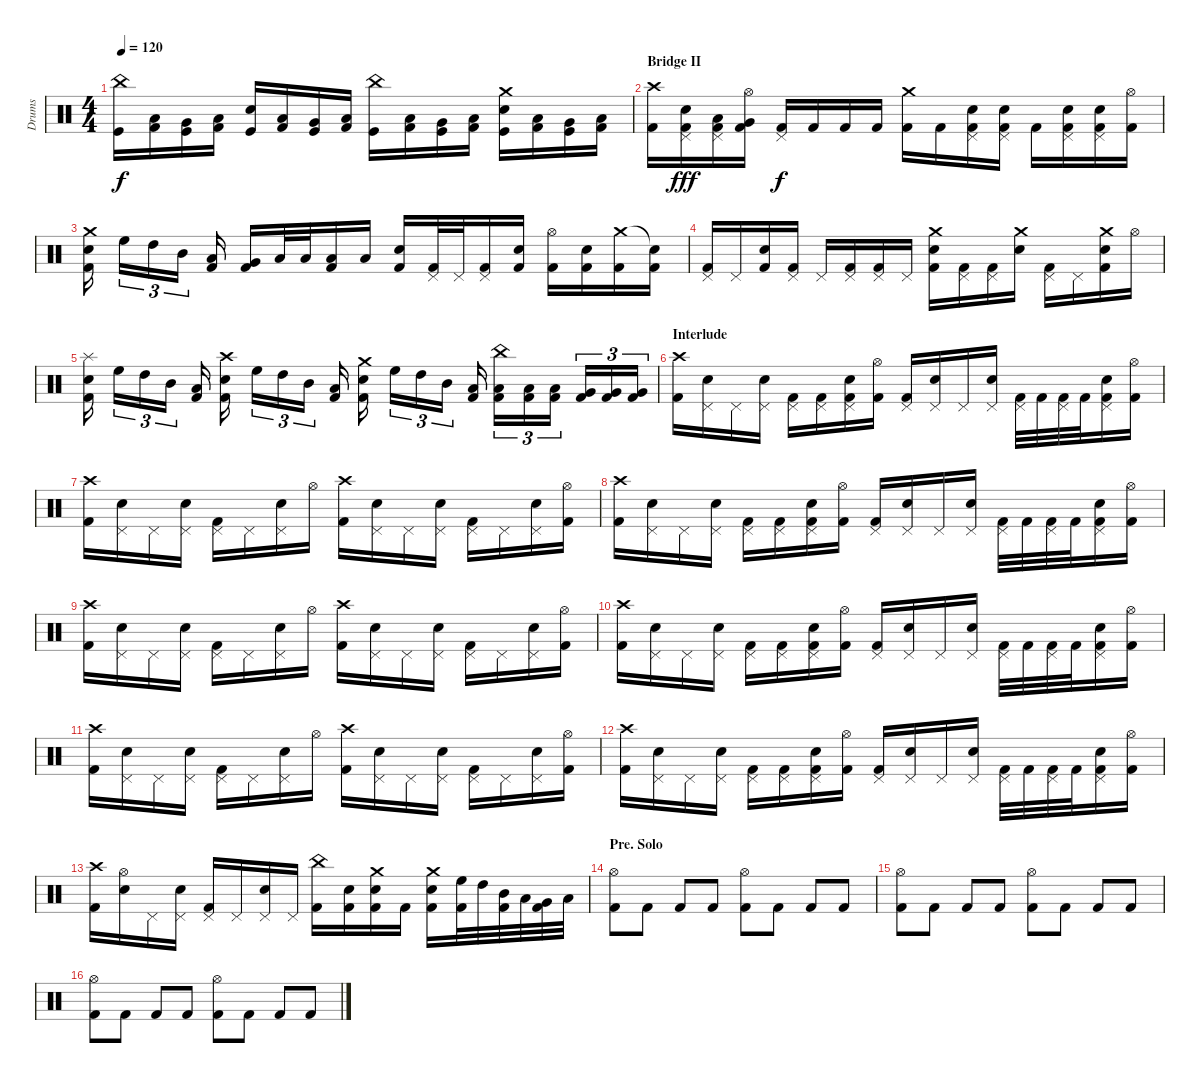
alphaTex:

\track ("Drums" "Drums") {instrument percussion}
\staff {score}
\articulation defaults
\ts (4 4)
\tempo 120
\clef neutral
\ks c
("China (hit)" "Kick (hit)").16{dy f} ("Low Tom (hit)" "Kick (hit) 2").16 ("Very Low Tom (hit)" "Kick (hit)").16 ("Low Floor Tom (hit)" "Kick (hit) 2").16 ("Snare (hit) 2" "Kick (hit)").16 ("Low Tom (hit)" "Kick (hit) 2").16 ("Very Low Tom (hit)" "Kick (hit)").16 ("Low Floor Tom (hit)" "Kick (hit) 2").16 ("China (hit)" "Kick (hit)").16 ("Low Tom (hit)" "Kick (hit) 2").16 ("Very Low Tom (hit)" "Kick (hit)").16 ("Low Floor Tom (hit)" "Kick (hit) 2").16 ("Crash medium (hit)" "Snare (hit) 2" "Kick (hit)").16 ("Low Tom (hit)" "Kick (hit) 2").16 ("Very Low Tom (hit)" "Kick (hit)").16 ("Low Floor Tom (hit)" "Kick (hit) 2").16 |
\section ("" "Bridge II")
("Crash high (hit)" "Kick (hit) 2").16 ("Pedal Hi-Hat (hit)" "Snare (hit) 2" "Kick (hit) 2").16{dy fff} ("Pedal Hi-Hat (hit)" "Low Tom (hit)" "Kick (hit) 2").16 ("Hi-Hat (open)" "Very Low Tom (hit)" "Kick (hit) 2").16 ("Pedal Hi-Hat (hit)" "Kick (hit) 2").16{dy f} "Kick (hit) 2".16 "Kick (hit) 2".16 "Kick (hit) 2".16 ("Crash medium (hit)" "Kick (hit) 2").16 "Kick (hit) 2".16 ("Pedal Hi-Hat (hit)" "Snare (hit) 2" "Kick (hit) 2").16 ("Pedal Hi-Hat (hit)" "Snare (hit) 2" "Kick (hit) 2").16 "Kick (hit) 2".16 ("Pedal Hi-Hat (hit)" "Snare (hit) 2" "Kick (hit) 2").16 ("Pedal Hi-Hat (hit)" "Snare (hit) 2" "Kick (hit) 2").16 ("Hi-Hat (open)" "Kick (hit) 2").16 |
("Crash medium (hit)" "Snare (hit) 2" "Kick (hit) 2").16 "High Floor Tom (hit)".16{tu (3 2)} "High Tom (hit)".16{tu (3 2)} "Mid Tom (hit)".16{tu (3 2)} ("Low Tom (hit)" "Kick (hit) 2").16 ("Very Low Tom (hit)" "Kick (hit) 2").16 "Low Floor Tom (hit)".32 "Low Floor Tom (hit)".32 ("Low Floor Tom (hit)" "Kick (hit) 2").16 "Low Floor Tom (hit)".16 ("Snare (hit) 2" "Kick (hit) 2").16 ("Pedal Hi-Hat (hit)" "Kick (hit) 2").32 "Pedal Hi-Hat (hit)".32 ("Pedal Hi-Hat (hit)" "Kick (hit) 2").16 ("Snare (hit) 2" "Kick (hit) 2").16 ("Hi-Hat (open)" "Kick (hit) 2").16 ("Snare (hit) 2" "Kick (hit) 2").16 ("Crash medium (hit)" "Kick (hit) 2").16 ("Snare (hit)"{t} "Kick (hit) 2").16 |
("Pedal Hi-Hat (hit)" "Kick (hit) 2").16 "Pedal Hi-Hat (hit)".16 ("Snare (hit) 2" "Kick (hit) 2").16 ("Pedal Hi-Hat (hit)" "Kick (hit) 2").16 "Pedal Hi-Hat (hit)".16 ("Pedal Hi-Hat (hit)" "Kick (hit) 2").16 ("Pedal Hi-Hat (hit)" "Kick (hit) 2").16 "Pedal Hi-Hat (hit)".16 ("Crash medium (hit)" "Snare (hit) 2" "Kick (hit) 2").16 ("Pedal Hi-Hat (hit)" "Kick (hit) 2").16 ("Pedal Hi-Hat (hit)" "Kick (hit) 2").16 ("Crash medium (hit)" "Snare (hit) 2").16 ("Pedal Hi-Hat (hit)" "Kick (hit) 2").16 "Pedal Hi-Hat (hit)".16 ("Crash medium (hit)" "Snare (hit) 2" "Kick (hit) 2").16 "Hi-Hat (open)".16 |
("Splash (hit)" "Snare (hit) 2" "Kick (hit) 2").16 "High Floor Tom (hit)".16{tu (3 2)} "High Tom (hit)".16{tu (3 2)} "Mid Tom (hit)".16{tu (3 2)} ("Low Tom (hit)" "Kick (hit) 2").16 ("Crash high (hit)" "Snare (hit) 2" "Kick (hit) 2").16 "High Floor Tom (hit)".16{tu (3 2)} "High Tom (hit)".16{tu (3 2)} "Mid Tom (hit)".16{tu (3 2)} ("Low Tom (hit)" "Kick (hit) 2").16 ("Crash medium (hit)" "Snare (hit) 2" "Kick (hit) 2").16 "High Floor Tom (hit)".16{tu (3 2)} "High Tom (hit)".16{tu (3 2)} "Mid Tom (hit)".16{tu (3 2)} ("Low Tom (hit)" "Kick (hit) 2").16 ("China (hit)" "Low Tom (hit)" "Kick (hit) 2").16{tu (3 2)} ("Low Tom (hit)" "Kick (hit) 2").16{tu (3 2)} ("Low Tom (hit)" "Kick (hit) 2").16{tu (3 2)} ("Very Low Tom (hit)" "Kick (hit) 2").16{tu (3 2)} ("Very Low Tom (hit)" "Kick (hit) 2").16{tu (3 2)} ("Very Low Tom (hit)" "Kick (hit) 2").16{tu (3 2)} |
\section ("" "Interlude")
("Crash high (hit)" "Kick (hit) 2").16 ("Pedal Hi-Hat (hit)" "Snare (hit) 2").16 "Pedal Hi-Hat (hit)".16 ("Pedal Hi-Hat (hit)" "Snare (hit) 2").16 ("Pedal Hi-Hat (hit)" "Kick (hit) 2").16 ("Pedal Hi-Hat (hit)" "Kick (hit) 2").16 ("Pedal Hi-Hat (hit)" "Snare (hit) 2" "Kick (hit) 2").16 ("Hi-Hat (open)" "Kick (hit) 2").16 ("Pedal Hi-Hat (hit)" "Kick (hit) 2").16 ("Pedal Hi-Hat (hit)" "Snare (hit) 2").16 "Pedal Hi-Hat (hit)".16 ("Pedal Hi-Hat (hit)" "Snare (hit) 2").16 ("Pedal Hi-Hat (hit)" "Kick (hit) 2").32 "Kick (hit) 2".32 ("Pedal Hi-Hat (hit)" "Kick (hit) 2").32 "Kick (hit) 2".32 ("Pedal Hi-Hat (hit)" "Snare (hit) 2" "Kick (hit) 2").16 ("Hi-Hat (open)" "Kick (hit) 2").16 |
("Crash high (hit)" "Kick (hit) 2").16 ("Pedal Hi-Hat (hit)" "Snare (hit) 2").16 "Pedal Hi-Hat (hit)".16 ("Pedal Hi-Hat (hit)" "Snare (hit) 2").16 ("Pedal Hi-Hat (hit)" "Kick (hit) 2").16 "Pedal Hi-Hat (hit)".16 ("Pedal Hi-Hat (hit)" "Snare (hit) 2").16 "Hi-Hat (open)".16 ("Crash high (hit)" "Kick (hit) 2").16 ("Pedal Hi-Hat (hit)" "Snare (hit) 2").16 "Pedal Hi-Hat (hit)".16 ("Pedal Hi-Hat (hit)" "Snare (hit) 2").16 ("Pedal Hi-Hat (hit)" "Kick (hit) 2").16 "Pedal Hi-Hat (hit)".16 ("Pedal Hi-Hat (hit)" "Snare (hit) 2").16 ("Hi-Hat (open)" "Kick (hit) 2").16 |
("Crash high (hit)" "Kick (hit) 2").16 ("Pedal Hi-Hat (hit)" "Snare (hit) 2").16 "Pedal Hi-Hat (hit)".16 ("Pedal Hi-Hat (hit)" "Snare (hit) 2").16 ("Pedal Hi-Hat (hit)" "Kick (hit) 2").16 ("Pedal Hi-Hat (hit)" "Kick (hit) 2").16 ("Pedal Hi-Hat (hit)" "Snare (hit) 2" "Kick (hit) 2").16 ("Hi-Hat (open)" "Kick (hit) 2").16 ("Pedal Hi-Hat (hit)" "Kick (hit) 2").16 ("Pedal Hi-Hat (hit)" "Snare (hit) 2").16 "Pedal Hi-Hat (hit)".16 ("Pedal Hi-Hat (hit)" "Snare (hit) 2").16 ("Pedal Hi-Hat (hit)" "Kick (hit) 2").32 "Kick (hit) 2".32 ("Pedal Hi-Hat (hit)" "Kick (hit) 2").32 "Kick (hit) 2".32 ("Pedal Hi-Hat (hit)" "Snare (hit) 2" "Kick (hit) 2").16 ("Hi-Hat (open)" "Kick (hit) 2").16 |
("Crash high (hit)" "Kick (hit) 2").16 ("Pedal Hi-Hat (hit)" "Snare (hit) 2").16 "Pedal Hi-Hat (hit)".16 ("Pedal Hi-Hat (hit)" "Snare (hit) 2").16 ("Pedal Hi-Hat (hit)" "Kick (hit) 2").16 "Pedal Hi-Hat (hit)".16 ("Pedal Hi-Hat (hit)" "Snare (hit) 2").16 "Hi-Hat (open)".16 ("Crash high (hit)" "Kick (hit) 2").16 ("Pedal Hi-Hat (hit)" "Snare (hit) 2").16 "Pedal Hi-Hat (hit)".16 ("Pedal Hi-Hat (hit)" "Snare (hit) 2").16 ("Pedal Hi-Hat (hit)" "Kick (hit) 2").16 "Pedal Hi-Hat (hit)".16 ("Pedal Hi-Hat (hit)" "Snare (hit) 2").16 ("Hi-Hat (open)" "Kick (hit) 2").16 |
("Crash high (hit)" "Kick (hit) 2").16 ("Pedal Hi-Hat (hit)" "Snare (hit) 2").16 "Pedal Hi-Hat (hit)".16 ("Pedal Hi-Hat (hit)" "Snare (hit) 2").16 ("Pedal Hi-Hat (hit)" "Kick (hit) 2").16 ("Pedal Hi-Hat (hit)" "Kick (hit) 2").16 ("Pedal Hi-Hat (hit)" "Snare (hit) 2" "Kick (hit) 2").16 ("Hi-Hat (open)" "Kick (hit) 2").16 ("Pedal Hi-Hat (hit)" "Kick (hit) 2").16 ("Pedal Hi-Hat (hit)" "Snare (hit) 2").16 "Pedal Hi-Hat (hit)".16 ("Pedal Hi-Hat (hit)" "Snare (hit) 2").16 ("Pedal Hi-Hat (hit)" "Kick (hit) 2").32 "Kick (hit) 2".32 ("Pedal Hi-Hat (hit)" "Kick (hit) 2").32 "Kick (hit) 2".32 ("Pedal Hi-Hat (hit)" "Snare (hit) 2" "Kick (hit) 2").16 ("Hi-Hat (open)" "Kick (hit) 2").16 |
("Crash high (hit)" "Kick (hit) 2").16 ("Pedal Hi-Hat (hit)" "Snare (hit) 2").16 "Pedal Hi-Hat (hit)".16 ("Pedal Hi-Hat (hit)" "Snare (hit) 2").16 ("Pedal Hi-Hat (hit)" "Kick (hit) 2").16 "Pedal Hi-Hat (hit)".16 ("Pedal Hi-Hat (hit)" "Snare (hit) 2").16 "Hi-Hat (open)".16 ("Crash high (hit)" "Kick (hit) 2").16 ("Pedal Hi-Hat (hit)" "Snare (hit) 2").16 "Pedal Hi-Hat (hit)".16 ("Pedal Hi-Hat (hit)" "Snare (hit) 2").16 ("Pedal Hi-Hat (hit)" "Kick (hit) 2").16 "Pedal Hi-Hat (hit)".16 ("Pedal Hi-Hat (hit)" "Snare (hit) 2").16 ("Hi-Hat (open)" "Kick (hit) 2").16 |
("Crash high (hit)" "Kick (hit) 2").16 ("Pedal Hi-Hat (hit)" "Snare (hit) 2").16 "Pedal Hi-Hat (hit)".16 ("Pedal Hi-Hat (hit)" "Snare (hit) 2").16 ("Pedal Hi-Hat (hit)" "Kick (hit) 2").16 ("Pedal Hi-Hat (hit)" "Kick (hit) 2").16 ("Pedal Hi-Hat (hit)" "Snare (hit) 2" "Kick (hit) 2").16 ("Hi-Hat (open)" "Kick (hit) 2").16 ("Pedal Hi-Hat (hit)" "Kick (hit) 2").16 ("Pedal Hi-Hat (hit)" "Snare (hit) 2").16 "Pedal Hi-Hat (hit)".16 ("Pedal Hi-Hat (hit)" "Snare (hit) 2").16 ("Pedal Hi-Hat (hit)" "Kick (hit) 2").32 "Kick (hit) 2".32 ("Pedal Hi-Hat (hit)" "Kick (hit) 2").32 "Kick (hit) 2".32 ("Pedal Hi-Hat (hit)" "Snare (hit) 2" "Kick (hit) 2").16 ("Hi-Hat (open)" "Kick (hit) 2").16 |
("Crash high (hit)" "Kick (hit) 2").16 ("Hi-Hat (open)" "Snare (hit) 2").16 "Pedal Hi-Hat (hit)".16 ("Pedal Hi-Hat (hit)" "Snare (hit) 2").16 ("Pedal Hi-Hat (hit)" "Kick (hit) 2").16 "Pedal Hi-Hat (hit)".16 ("Pedal Hi-Hat (hit)" "Snare (hit) 2").16 "Pedal Hi-Hat (hit)".16 ("China (hit)" "Kick (hit) 2").16 ("Snare (hit) 2" "Kick (hit) 2").16 ("Crash medium (hit)" "Snare (hit) 2" "Kick (hit) 2").16 "Kick (hit) 2".16 ("Crash medium (hit)" "Snare (hit) 2" "Kick (hit) 2").16 ("High Floor Tom (hit)" "Kick (hit) 2").32 "High Tom (hit)".32 ("Mid Tom (hit)" "Kick (hit) 2").32 "Low Tom (hit)".32 ("Very Low Tom (hit)" "Kick (hit) 2").32 "Low Floor Tom (hit)".32 |
\section ("" "Pre. Solo")
("Hi-Hat (open)" "Kick (hit) 2").8 "Kick (hit) 2".8 "Kick (hit) 2".8 "Kick (hit) 2".8 ("Hi-Hat (open)" "Kick (hit) 2").8 "Kick (hit) 2".8 "Kick (hit) 2".8 "Kick (hit) 2".8 |
("Hi-Hat (open)" "Kick (hit) 2").8 "Kick (hit) 2".8 "Kick (hit) 2".8 "Kick (hit) 2".8 ("Hi-Hat (open)" "Kick (hit) 2").8 "Kick (hit) 2".8 "Kick (hit) 2".8 "Kick (hit) 2".8 |
("Hi-Hat (open)" "Kick (hit) 2").8 "Kick (hit) 2".8 "Kick (hit) 2".8 "Kick (hit) 2".8 ("Hi-Hat (open)" "Kick (hit) 2").8 "Kick (hit) 2".8 "Kick (hit) 2".8 "Kick (hit) 2".8
